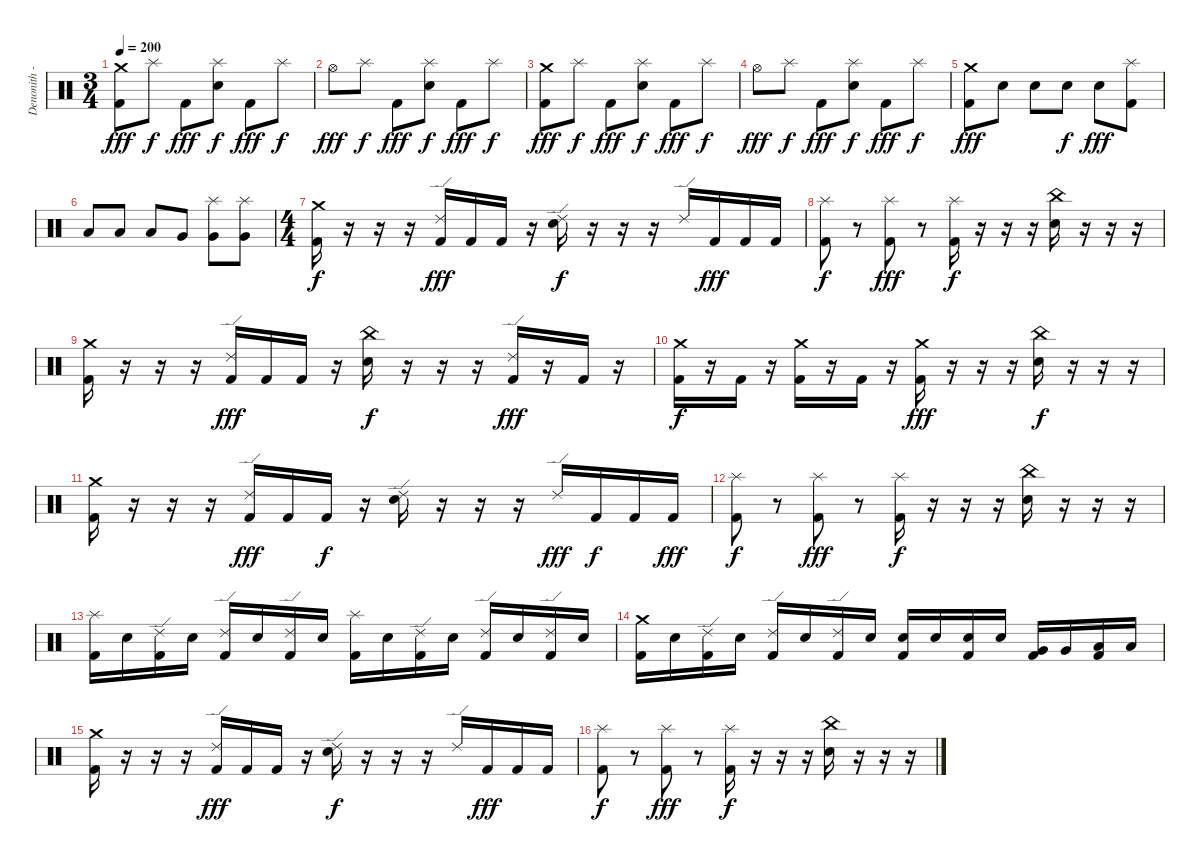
\track ("Denonith - Spyros" "Denonith -") {instrument percussion}
\staff {score}
\articulation defaults
\ts (3 4)
\tempo 200
\clef neutral
\ks c
("Crash medium (hit)" "Kick (hit) 2").8{dy fff} "Splash (hit)".8{dy f} "Kick (hit) 2".8{dy fff} ("Splash (hit)" "Electric Snare (hit)").8{dy f} "Kick (hit) 2".8{dy fff} "Splash (hit)".8{dy f} |
"Hi-Hat (open)".8{dy fff} "Splash (hit)".8{dy f} "Kick (hit) 2".8{dy fff} ("Splash (hit)" "Electric Snare (hit)").8{dy f} "Kick (hit) 2".8{dy fff} "Splash (hit)".8{dy f} |
("Crash medium (hit)" "Kick (hit) 2").8{dy fff} "Splash (hit)".8{dy f} "Kick (hit) 2".8{dy fff} ("Splash (hit)" "Electric Snare (hit)").8{dy f} "Kick (hit) 2".8{dy fff} "Splash (hit)".8{dy f} |
"Hi-Hat (open)".8{dy fff} "Splash (hit)".8{dy f} "Kick (hit) 2".8{dy fff} ("Splash (hit)" "Electric Snare (hit)").8{dy f} "Kick (hit) 2".8{dy fff} "Splash (hit)".8{dy f} |
("Crash medium (hit)" "Kick (hit) 2").8{dy fff} "Electric Snare (hit)".8 "Electric Snare (hit)".8 "Electric Snare (hit)".8{dy f} "Electric Snare (hit)".8{dy fff} ("Splash (hit)" "Kick (hit) 2").8 |
"Low Floor Tom (hit)".8 "Low Floor Tom (hit)".8 "Low Floor Tom (hit)".8 "Very Low Tom (hit)".8 ("Splash (hit)" "Very Low Tom (hit)").8 ("Splash (hit)" "Very Low Tom (hit)").8 |
\ts (4 4)
("Crash medium (hit)" "Kick (hit) 2").16{dy f} r.16 r.16 r.16 ("Ride (edge) 2" "Kick (hit) 2").16{dy fff} "Kick (hit) 2".16 "Kick (hit) 2".16 r.16 ("Ride (edge) 2" "Electric Snare (hit)").16{dy f} r.16 r.16 r.16 "Ride (edge) 2".16 "Kick (hit) 2".16{dy fff} "Kick (hit) 2".16 "Kick (hit) 2".16 |
("Splash (hit)" "Kick (hit) 2").8{dy f} r.8 ("Splash (hit)" "Kick (hit) 2").8{dy fff} r.8 ("Splash (hit)" "Kick (hit) 2").16{dy f} r.16 r.16 r.16 ("China (hit)" "Electric Snare (hit)").16 r.16 r.16 r.16 |
("Crash medium (hit)" "Kick (hit) 2").16 r.16 r.16 r.16 ("Ride (edge) 2" "Kick (hit) 2").16{dy fff} "Kick (hit) 2".16 "Kick (hit) 2".16 r.16 ("China (hit)" "Electric Snare (hit)").16{dy f} r.16 r.16 r.16 ("Ride (edge) 2" "Kick (hit) 2").16{dy fff} r.16 "Kick (hit) 2".16 r.16 |
("Crash medium (hit)" "Kick (hit) 2").16{dy f} r.16 "Kick (hit) 2".16 r.16 ("Crash medium (hit)" "Kick (hit) 2").16 r.16 "Kick (hit) 2".16 r.16 ("Crash medium (hit)" "Kick (hit) 2").16{dy fff} r.16 r.16 r.16 ("China (hit)" "Electric Snare (hit)").16{dy f} r.16 r.16 r.16 |
("Crash medium (hit)" "Kick (hit) 2").16 r.16 r.16 r.16 ("Ride (edge) 2" "Kick (hit) 2").16{dy fff} "Kick (hit) 2".16 "Kick (hit) 2".16{dy f} r.16 ("Ride (edge) 2" "Electric Snare (hit)").16 r.16 r.16 r.16 "Ride (edge) 2".16{dy fff} "Kick (hit) 2".16{dy f} "Kick (hit) 2".16 "Kick (hit) 2".16{dy fff} |
("Splash (hit)" "Kick (hit) 2").8{dy f} r.8 ("Splash (hit)" "Kick (hit) 2").8{dy fff} r.8 ("Splash (hit)" "Kick (hit) 2").16{dy f} r.16 r.16 r.16 ("China (hit)" "Electric Snare (hit)").16 r.16 r.16 r.16 |
("Splash (hit)" "Kick (hit) 2").16 "Electric Snare (hit)".16 ("Ride (edge) 2" "Kick (hit) 2").16 "Electric Snare (hit)".16 ("Ride (edge) 2" "Kick (hit) 2").16 "Electric Snare (hit)".16 ("Ride (edge) 2" "Kick (hit) 2").16 "Electric Snare (hit)".16 ("Splash (hit)" "Kick (hit) 2").16 "Electric Snare (hit)".16 ("Ride (edge) 2" "Kick (hit) 2").16 "Electric Snare (hit)".16 ("Ride (edge) 2" "Kick (hit) 2").16 "Electric Snare (hit)".16 ("Ride (edge) 2" "Kick (hit) 2").16 "Electric Snare (hit)".16 |
("Crash medium (hit)" "Kick (hit) 2").16 "Electric Snare (hit)".16 ("Ride (edge) 2" "Kick (hit) 2").16 "Electric Snare (hit)".16 ("Ride (edge) 2" "Kick (hit) 2").16 "Electric Snare (hit)".16 ("Ride (edge) 2" "Kick (hit) 2").16 "Electric Snare (hit)".16 ("Electric Snare (hit)" "Kick (hit) 2").16 "Electric Snare (hit)".16 ("Electric Snare (hit)" "Kick (hit) 2").16 "Electric Snare (hit)".16 ("Very Low Tom (hit)" "Kick (hit) 2").16 "Very Low Tom (hit)".16 ("Low Floor Tom (hit)" "Kick (hit) 2").16 "Low Floor Tom (hit)".16 |
("Crash medium (hit)" "Kick (hit) 2").16 r.16 r.16 r.16 ("Ride (edge) 2" "Kick (hit) 2").16{dy fff} "Kick (hit) 2".16 "Kick (hit) 2".16 r.16 ("Ride (edge) 2" "Electric Snare (hit)").16{dy f} r.16 r.16 r.16 "Ride (edge) 2".16 "Kick (hit) 2".16{dy fff} "Kick (hit) 2".16 "Kick (hit) 2".16 |
("Splash (hit)" "Kick (hit) 2").8{dy f} r.8 ("Splash (hit)" "Kick (hit) 2").8{dy fff} r.8 ("Splash (hit)" "Kick (hit) 2").16{dy f} r.16 r.16 r.16 ("China (hit)" "Electric Snare (hit)").16 r.16 r.16 r.16
